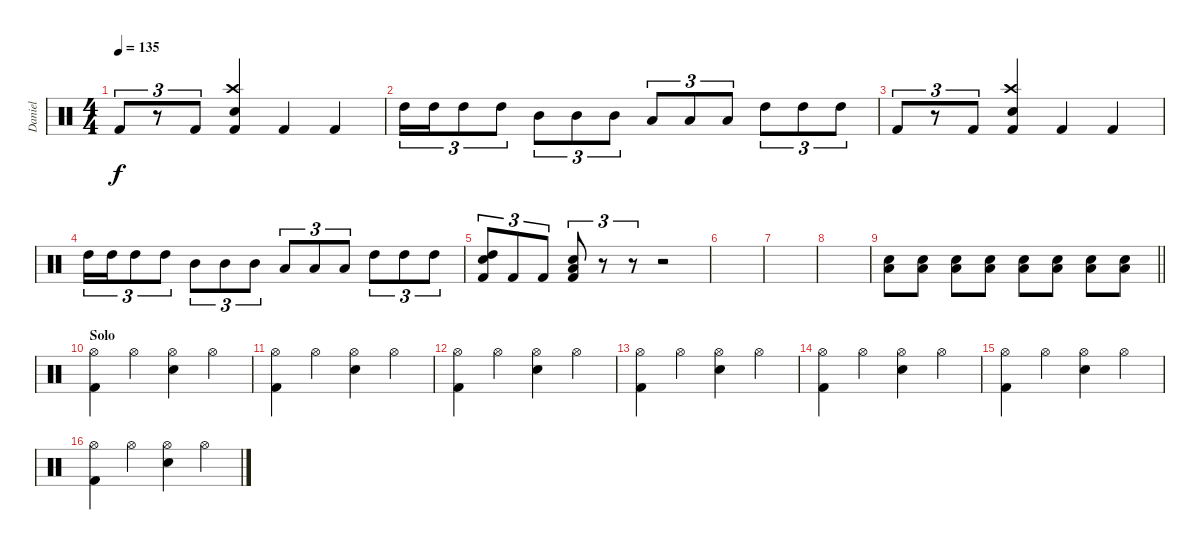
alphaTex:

\track ("Daniel" "Daniel") {instrument percussion}
\staff {score}
\articulation defaults
\ts (4 4)
\tempo 135
\clef neutral
\ks c "Kick (hit) 2".8{tu (3 2) dy f}
r.8{tu (3 2)} "Kick (hit) 2".8{tu (3 2)} ("Crash high (hit)" "Electric Snare (hit)" "Kick (hit) 2").4 "Kick (hit) 2".4 "Kick (hit) 2".4 |
"High Tom (hit)".16{tu (3 2)} "High Tom (hit)".16{tu (3 2)} "High Tom (hit)".8{tu (3 2)} "High Tom (hit)".8{tu (3 2)} "Mid Tom (hit)".8{tu (3 2)} "Mid Tom (hit)".8{tu (3 2)} "Mid Tom (hit)".8{tu (3 2)} "Low Tom (hit)".8{tu (3 2)} "Low Tom (hit)".8{tu (3 2)} "Low Tom (hit)".8{tu (3 2)} "High Tom (hit)".8{tu (3 2)} "High Tom (hit)".8{tu (3 2)} "High Tom (hit)".8{tu (3 2)} |
"Kick (hit) 2".8{tu (3 2)} r.8{tu (3 2)} "Kick (hit) 2".8{tu (3 2)} ("Crash high (hit)" "Electric Snare (hit)" "Kick (hit) 2").4 "Kick (hit) 2".4 "Kick (hit) 2".4 |
"High Tom (hit)".16{tu (3 2)} "High Tom (hit)".16{tu (3 2)} "High Tom (hit)".8{tu (3 2)} "High Tom (hit)".8{tu (3 2)} "Mid Tom (hit)".8{tu (3 2)} "Mid Tom (hit)".8{tu (3 2)} "Mid Tom (hit)".8{tu (3 2)} "Low Tom (hit)".8{tu (3 2)} "Low Tom (hit)".8{tu (3 2)} "Low Tom (hit)".8{tu (3 2)} "High Tom (hit)".8{tu (3 2)} "High Tom (hit)".8{tu (3 2)} "High Tom (hit)".8{tu (3 2)} |
("Kick (hit) 2" "High Tom (hit)" "Electric Snare (hit)").8{tu (3 2)} "Kick (hit) 2".8{tu (3 2)} "Kick (hit) 2".8{tu (3 2)} ("Kick (hit) 2" "Low Tom (hit)" "Electric Snare (hit)").8{tu (3 2)} r.8{tu (3 2)} r.8{tu (3 2)} r.2 |
|
|
|
\barLineRight lightlight
("Low Tom (hit)" "Electric Snare (hit)").8{volume 5} ("Low Tom (hit)" "Electric Snare (hit)").8{volume 13} ("Low Tom (hit)" "Electric Snare (hit)").8 ("Low Tom (hit)" "Electric Snare (hit)").8 ("Low Tom (hit)" "Electric Snare (hit)").8 ("Low Tom (hit)" "Electric Snare (hit)").8 ("Low Tom (hit)" "Electric Snare (hit)").8 ("Low Tom (hit)" "Electric Snare (hit)").8 |
\section ("" "Solo")
("Hi-Hat (open)" "Kick (hit) 2").4 "Hi-Hat (open)".4 ("Hi-Hat (open)" "Electric Snare (hit)").4 "Hi-Hat (open)".4 |
("Hi-Hat (open)" "Kick (hit) 2").4 "Hi-Hat (open)".4 ("Hi-Hat (open)" "Electric Snare (hit)").4 "Hi-Hat (open)".4 |
("Hi-Hat (open)" "Kick (hit) 2").4 "Hi-Hat (open)".4 ("Hi-Hat (open)" "Electric Snare (hit)").4 "Hi-Hat (open)".4 |
("Hi-Hat (open)" "Kick (hit) 2").4 "Hi-Hat (open)".4 ("Hi-Hat (open)" "Electric Snare (hit)").4 "Hi-Hat (open)".4 |
("Hi-Hat (open)" "Kick (hit) 2").4 "Hi-Hat (open)".4 ("Hi-Hat (open)" "Electric Snare (hit)").4 "Hi-Hat (open)".4 |
("Hi-Hat (open)" "Kick (hit) 2").4 "Hi-Hat (open)".4 ("Hi-Hat (open)" "Electric Snare (hit)").4 "Hi-Hat (open)".4 |
("Hi-Hat (open)" "Kick (hit) 2").4 "Hi-Hat (open)".4 ("Hi-Hat (open)" "Electric Snare (hit)").4 "Hi-Hat (open)".4
